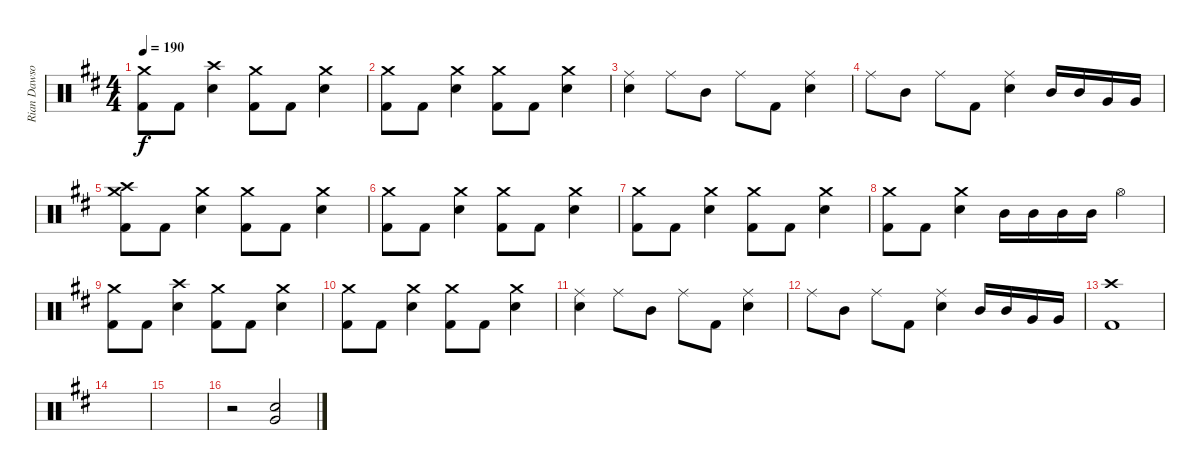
\track ("Rian Dawson" "Rian Dawso") {instrument percussion}
\staff {score}
\articulation defaults
\ts (4 4)
\tempo 190
\clef neutral
\ks d
("Crash medium (hit)" "Kick (hit) 2").8{dy f} "Kick (hit) 2".8 ("Crash high (hit)" "Electric Snare (hit)").4 ("Crash medium (hit)" "Kick (hit) 2").8 "Kick (hit) 2".8 ("Crash medium (hit)" "Electric Snare (hit)").4 |
("Crash medium (hit)" "Kick (hit) 2").8 "Kick (hit) 2".8 ("Crash medium (hit)" "Electric Snare (hit)").4 ("Crash medium (hit)" "Kick (hit) 2").8 "Kick (hit) 2".8 ("Crash medium (hit)" "Electric Snare (hit)").4 |
("Ride (middle)" "Electric Snare (hit)").4 "Ride (middle)".8 "Mid Tom (hit)".8 "Ride (middle)".8 "Kick (hit) 2".8 ("Ride (middle)" "Electric Snare (hit)").4 |
"Ride (middle)".8 "Mid Tom (hit)".8 "Ride (middle)".8 "Kick (hit) 2".8 ("Ride (middle)" "Electric Snare (hit)").4 "Mid Tom (hit)".16 "Mid Tom (hit)".16 "Very Low Tom (hit)".16 "Very Low Tom (hit)".16 |
("Crash high (hit)" "Crash medium (hit)" "Kick (hit) 2").8 "Kick (hit) 2".8 ("Crash medium (hit)" "Electric Snare (hit)").4 ("Crash medium (hit)" "Kick (hit) 2").8 "Kick (hit) 2".8 ("Crash medium (hit)" "Electric Snare (hit)").4 |
("Crash medium (hit)" "Kick (hit) 2").8 "Kick (hit) 2".8 ("Crash medium (hit)" "Electric Snare (hit)").4 ("Crash medium (hit)" "Kick (hit) 2").8 "Kick (hit) 2".8 ("Crash medium (hit)" "Electric Snare (hit)").4 |
("Crash medium (hit)" "Kick (hit) 2").8 "Kick (hit) 2".8 ("Crash medium (hit)" "Electric Snare (hit)").4 ("Crash medium (hit)" "Kick (hit) 2").8 "Kick (hit) 2".8 ("Crash medium (hit)" "Electric Snare (hit)").4 |
("Crash medium (hit)" "Kick (hit) 2").8 "Kick (hit) 2".8 ("Crash medium (hit)" "Electric Snare (hit)").4 "Mid Tom (hit)".16 "Mid Tom (hit)".16 "Mid Tom (hit)".16 "Mid Tom (hit)".16 "Hi-Hat (open)".4 |
("Crash medium (hit)" "Kick (hit) 2").8 "Kick (hit) 2".8 ("Crash high (hit)" "Electric Snare (hit)").4 ("Crash medium (hit)" "Kick (hit) 2").8 "Kick (hit) 2".8 ("Crash medium (hit)" "Electric Snare (hit)").4 |
("Crash medium (hit)" "Kick (hit) 2").8 "Kick (hit) 2".8 ("Crash medium (hit)" "Electric Snare (hit)").4 ("Crash medium (hit)" "Kick (hit) 2").8 "Kick (hit) 2".8 ("Crash medium (hit)" "Electric Snare (hit)").4 |
("Ride (middle)" "Electric Snare (hit)").4 "Ride (middle)".8 "Mid Tom (hit)".8 "Ride (middle)".8 "Kick (hit) 2".8 ("Ride (middle)" "Electric Snare (hit)").4 |
"Ride (middle)".8 "Mid Tom (hit)".8 "Ride (middle)".8 "Kick (hit) 2".8 ("Ride (middle)" "Electric Snare (hit)").4 "Mid Tom (hit)".16 "Mid Tom (hit)".16 "Very Low Tom (hit)".16 "Very Low Tom (hit)".16 |
("Crash high (hit)" "Kick (hit) 2").1 |
|
|
r.2 ("Very Low Tom (hit)" "Electric Snare (hit)").2
